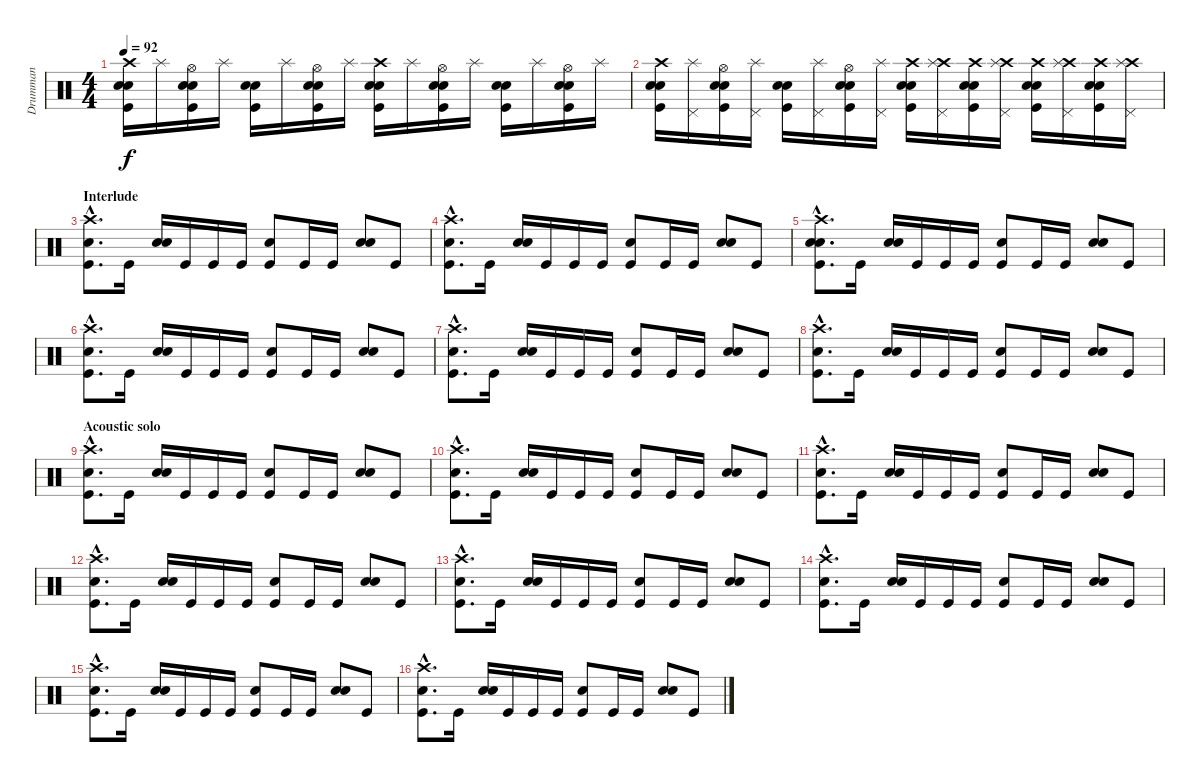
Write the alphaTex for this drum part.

\track ("Drumman" "Drumman") {instrument percussion}
\staff {score}
\articulation defaults
\ts (4 4)
\tempo 92
\clef neutral
\ks c
("Crash high (hit)" "Snare (hit) 2" "Electric Snare (hit)" "Kick (hit)").16{dy f} "Splash (hit)".16 ("Hi-Hat (open)" "Snare (hit) 2" "Electric Snare (hit)" "Kick (hit)").16 "Splash (hit)".16 ("Snare (hit) 2" "Electric Snare (hit)" "Kick (hit)").16 "Splash (hit)".16 ("Hi-Hat (open)" "Snare (hit) 2" "Electric Snare (hit)" "Kick (hit)").16 "Splash (hit)".16 ("Crash high (hit)" "Snare (hit) 2" "Electric Snare (hit)" "Kick (hit)").16 "Splash (hit)".16 ("Hi-Hat (open)" "Snare (hit) 2" "Electric Snare (hit)" "Kick (hit)").16 "Splash (hit)".16 ("Snare (hit) 2" "Electric Snare (hit)" "Kick (hit)").16 "Splash (hit)".16 ("Hi-Hat (open)" "Snare (hit) 2" "Electric Snare (hit)" "Kick (hit)").16 "Splash (hit)".16 |
("Crash high (hit)" "Snare (hit) 2" "Electric Snare (hit)" "Kick (hit)").16 ("Pedal Hi-Hat (hit)" "Splash (hit)").16 ("Hi-Hat (open)" "Snare (hit) 2" "Electric Snare (hit)" "Kick (hit)").16 ("Pedal Hi-Hat (hit)" "Splash (hit)").16 ("Snare (hit) 2" "Electric Snare (hit)" "Kick (hit)").16 ("Pedal Hi-Hat (hit)" "Splash (hit)").16 ("Hi-Hat (open)" "Snare (hit) 2" "Electric Snare (hit)" "Kick (hit)").16 ("Pedal Hi-Hat (hit)" "Splash (hit)").16 ("Crash high (hit)" "Snare (hit) 2" "Electric Snare (hit)" "Kick (hit)").16 ("Crash high (hit)" "Pedal Hi-Hat (hit)" "Splash (hit)").16 ("Crash high (hit)" "Snare (hit) 2" "Electric Snare (hit)" "Kick (hit)").16 ("Crash high (hit)" "Pedal Hi-Hat (hit)" "Splash (hit)").16 ("Crash high (hit)" "Snare (hit) 2" "Electric Snare (hit)" "Kick (hit)").16 ("Crash high (hit)" "Pedal Hi-Hat (hit)" "Splash (hit)").16 ("Crash high (hit)" "Snare (hit) 2" "Electric Snare (hit)" "Kick (hit)").16 ("Crash high (hit)" "Pedal Hi-Hat (hit)" "Splash (hit)").16 |
\section ("" "Interlude")
("Hand Clap (hit)"{hac} "Crash high (hit)"{hac} "Kick (hit)"{hac}).8{d} "Kick (hit)".16 ("Snare (hit) 2" "Electric Snare (hit)").16 "Kick (hit)".16 "Kick (hit)".16 "Kick (hit)".16 ("Hand Clap (hit)" "Kick (hit)").8 "Kick (hit)".16 "Kick (hit)".16 ("Snare (hit) 2" "Electric Snare (hit)").8 "Kick (hit)".8 |
("Hand Clap (hit)"{hac} "Crash high (hit)"{hac} "Kick (hit)"{hac}).8{d} "Kick (hit)".16 ("Snare (hit) 2" "Electric Snare (hit)").16 "Kick (hit)".16 "Kick (hit)".16 "Kick (hit)".16 ("Hand Clap (hit)" "Kick (hit)").8 "Kick (hit)".16 "Kick (hit)".16 ("Snare (hit) 2" "Electric Snare (hit)").8 "Kick (hit)".8 |
("Hand Clap (hit)"{hac} "Crash high (hit)"{hac} "Snare (hit)"{hac} "Kick (hit)"{hac}).8{d} "Kick (hit)".16 ("Snare (hit) 2" "Electric Snare (hit)").16 "Kick (hit)".16 "Kick (hit)".16 "Kick (hit)".16 ("Hand Clap (hit)" "Kick (hit)").8 "Kick (hit)".16 "Kick (hit)".16 ("Snare (hit) 2" "Electric Snare (hit)").8 "Kick (hit)".8 |
("Hand Clap (hit)"{hac} "Crash high (hit)"{hac} "Kick (hit)"{hac}).8{d} "Kick (hit)".16 ("Snare (hit) 2" "Electric Snare (hit)").16 "Kick (hit)".16 "Kick (hit)".16 "Kick (hit)".16 ("Hand Clap (hit)" "Kick (hit)").8 "Kick (hit)".16 "Kick (hit)".16 ("Snare (hit) 2" "Electric Snare (hit)").8 "Kick (hit)".8 |
("Hand Clap (hit)"{hac} "Crash high (hit)"{hac} "Kick (hit)"{hac}).8{d} "Kick (hit)".16 ("Snare (hit) 2" "Electric Snare (hit)").16 "Kick (hit)".16 "Kick (hit)".16 "Kick (hit)".16 ("Hand Clap (hit)" "Kick (hit)").8 "Kick (hit)".16 "Kick (hit)".16 ("Snare (hit) 2" "Electric Snare (hit)").8 "Kick (hit)".8 |
("Hand Clap (hit)"{hac} "Crash high (hit)"{hac} "Kick (hit)"{hac}).8{d} "Kick (hit)".16 ("Snare (hit) 2" "Electric Snare (hit)").16 "Kick (hit)".16 "Kick (hit)".16 "Kick (hit)".16 ("Hand Clap (hit)" "Kick (hit)").8 "Kick (hit)".16 "Kick (hit)".16 ("Snare (hit) 2" "Electric Snare (hit)").8 "Kick (hit)".8 |
\section ("" "Acoustic solo")
("Hand Clap (hit)"{hac} "Crash high (hit)"{hac} "Kick (hit)"{hac}).8{d} "Kick (hit)".16 ("Snare (hit) 2" "Electric Snare (hit)").16 "Kick (hit)".16 "Kick (hit)".16 "Kick (hit)".16 ("Hand Clap (hit)" "Kick (hit)").8 "Kick (hit)".16 "Kick (hit)".16 ("Snare (hit) 2" "Electric Snare (hit)").8 "Kick (hit)".8 |
("Hand Clap (hit)"{hac} "Crash high (hit)"{hac} "Kick (hit)"{hac}).8{d} "Kick (hit)".16 ("Snare (hit) 2" "Electric Snare (hit)").16 "Kick (hit)".16 "Kick (hit)".16 "Kick (hit)".16 ("Hand Clap (hit)" "Kick (hit)").8 "Kick (hit)".16 "Kick (hit)".16 ("Snare (hit) 2" "Electric Snare (hit)").8 "Kick (hit)".8 |
("Hand Clap (hit)"{hac} "Crash high (hit)"{hac} "Kick (hit)"{hac}).8{d} "Kick (hit)".16 ("Snare (hit) 2" "Electric Snare (hit)").16 "Kick (hit)".16 "Kick (hit)".16 "Kick (hit)".16 ("Hand Clap (hit)" "Kick (hit)").8 "Kick (hit)".16 "Kick (hit)".16 ("Snare (hit) 2" "Electric Snare (hit)").8 "Kick (hit)".8 |
("Hand Clap (hit)"{hac} "Crash high (hit)"{hac} "Kick (hit)"{hac}).8{d} "Kick (hit)".16 ("Snare (hit) 2" "Electric Snare (hit)").16 "Kick (hit)".16 "Kick (hit)".16 "Kick (hit)".16 ("Hand Clap (hit)" "Kick (hit)").8 "Kick (hit)".16 "Kick (hit)".16 ("Snare (hit) 2" "Electric Snare (hit)").8 "Kick (hit)".8 |
("Hand Clap (hit)"{hac} "Crash high (hit)"{hac} "Kick (hit)"{hac}).8{d} "Kick (hit)".16 ("Snare (hit) 2" "Electric Snare (hit)").16 "Kick (hit)".16 "Kick (hit)".16 "Kick (hit)".16 ("Hand Clap (hit)" "Kick (hit)").8 "Kick (hit)".16 "Kick (hit)".16 ("Snare (hit) 2" "Electric Snare (hit)").8 "Kick (hit)".8 |
("Hand Clap (hit)"{hac} "Crash high (hit)"{hac} "Kick (hit)"{hac}).8{d} "Kick (hit)".16 ("Snare (hit) 2" "Electric Snare (hit)").16 "Kick (hit)".16 "Kick (hit)".16 "Kick (hit)".16 ("Hand Clap (hit)" "Kick (hit)").8 "Kick (hit)".16 "Kick (hit)".16 ("Snare (hit) 2" "Electric Snare (hit)").8 "Kick (hit)".8 |
("Hand Clap (hit)"{hac} "Crash high (hit)"{hac} "Kick (hit)"{hac}).8{d} "Kick (hit)".16 ("Snare (hit) 2" "Electric Snare (hit)").16 "Kick (hit)".16 "Kick (hit)".16 "Kick (hit)".16 ("Hand Clap (hit)" "Kick (hit)").8 "Kick (hit)".16 "Kick (hit)".16 ("Snare (hit) 2" "Electric Snare (hit)").8 "Kick (hit)".8 |
("Hand Clap (hit)"{hac} "Crash high (hit)"{hac} "Kick (hit)"{hac}).8{d} "Kick (hit)".16 ("Snare (hit) 2" "Electric Snare (hit)").16 "Kick (hit)".16 "Kick (hit)".16 "Kick (hit)".16 ("Hand Clap (hit)" "Kick (hit)").8 "Kick (hit)".16 "Kick (hit)".16 ("Snare (hit) 2" "Electric Snare (hit)").8 "Kick (hit)".8
